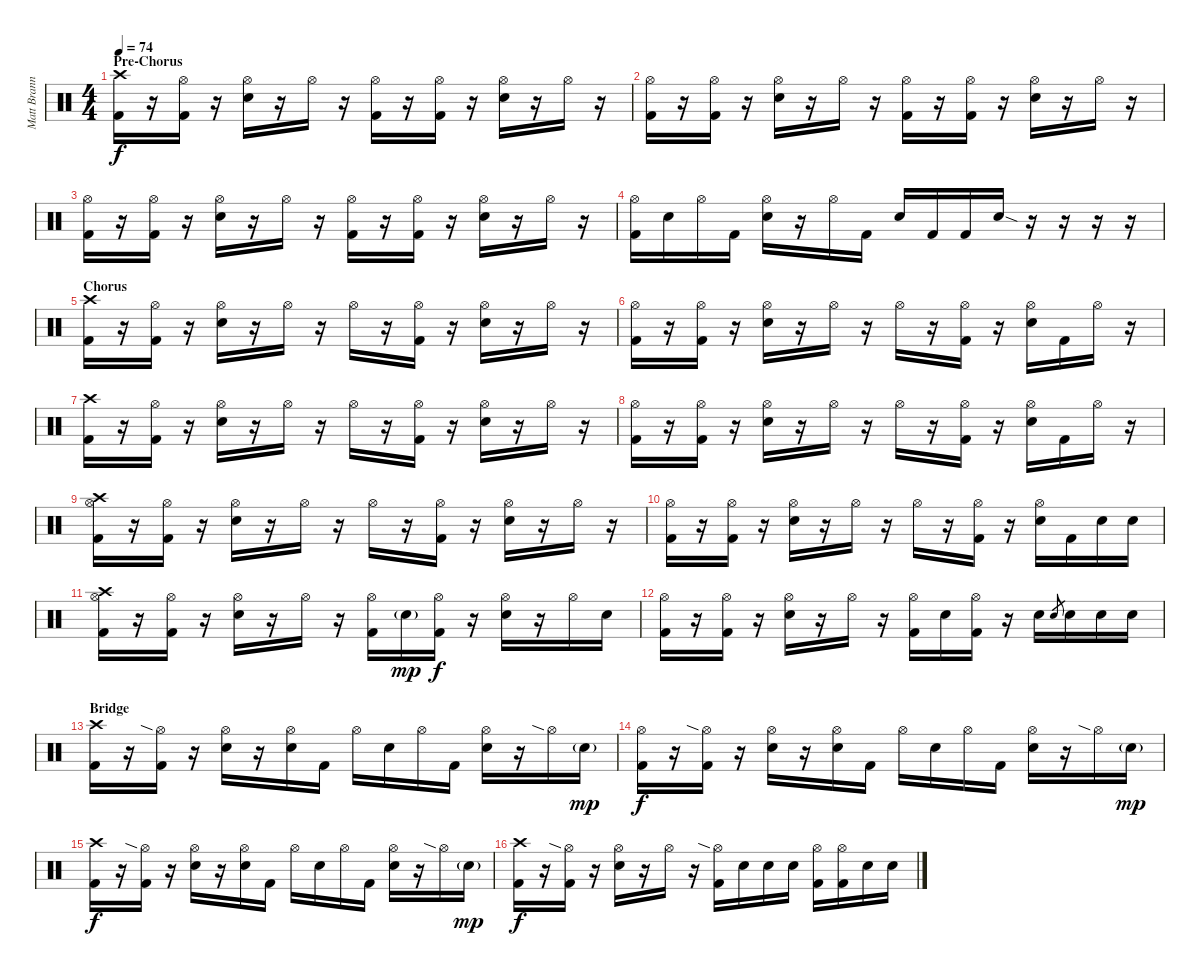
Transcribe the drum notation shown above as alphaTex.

\track ("Matt Brann" "Matt Brann") {instrument percussion}
\staff {score}
\articulation defaults
\ts (4 4)
\section ("" "Pre-Chorus")
\tempo 74
\clef neutral
\ks c
("Crash high (hit)" "Kick (hit) 2").16{dy f} r.16 ("Hi-Hat (open)" "Kick (hit) 2").16 r.16 ("Hi-Hat (open)" "Snare (hit) 2").16 r.16 "Hi-Hat (open)".16 r.16 ("Hi-Hat (open)" "Kick (hit) 2").16 r.16 ("Hi-Hat (open)" "Kick (hit) 2").16 r.16 ("Hi-Hat (open)" "Snare (hit) 2").16 r.16 "Hi-Hat (open)".16 r.16 |
("Hi-Hat (open)" "Kick (hit) 2").16 r.16 ("Hi-Hat (open)" "Kick (hit) 2").16 r.16 ("Hi-Hat (open)" "Snare (hit) 2").16 r.16 "Hi-Hat (open)".16 r.16 ("Hi-Hat (open)" "Kick (hit) 2").16 r.16 ("Hi-Hat (open)" "Kick (hit) 2").16 r.16 ("Hi-Hat (open)" "Snare (hit) 2").16 r.16 "Hi-Hat (open)".16 r.16 |
("Hi-Hat (open)" "Kick (hit) 2").16 r.16 ("Hi-Hat (open)" "Kick (hit) 2").16 r.16 ("Hi-Hat (open)" "Snare (hit) 2").16 r.16 "Hi-Hat (open)".16 r.16 ("Hi-Hat (open)" "Kick (hit) 2").16 r.16 ("Hi-Hat (open)" "Kick (hit) 2").16 r.16 ("Hi-Hat (open)" "Snare (hit) 2").16 r.16 "Hi-Hat (open)".16 r.16 |
("Hi-Hat (open)" "Kick (hit) 2").16 "Snare (hit) 2".16 "Hi-Hat (open)".16 "Kick (hit) 2".16 ("Hi-Hat (open)" "Snare (hit) 2").16 r.16 "Hi-Hat (open)".16 "Kick (hit) 2".16 "Snare (hit) 2".16 "Kick (hit) 2".16 "Kick (hit) 2".16 "Snare (hit) 2"{sod}.16 r.16 r.16 r.16 r.16 |
\section ("" "Chorus")
("Crash high (hit)" "Kick (hit) 2").16 r.16 ("Hi-Hat (open)" "Kick (hit) 2").16 r.16 ("Hi-Hat (open)" "Snare (hit) 2").16 r.16 "Hi-Hat (open)".16 r.16 "Hi-Hat (open)".16 r.16 ("Hi-Hat (open)" "Kick (hit) 2").16 r.16 ("Hi-Hat (open)" "Snare (hit) 2").16 r.16 "Hi-Hat (open)".16 r.16 |
("Hi-Hat (open)" "Kick (hit) 2").16 r.16 ("Hi-Hat (open)" "Kick (hit) 2").16 r.16 ("Hi-Hat (open)" "Snare (hit) 2").16 r.16 "Hi-Hat (open)".16 r.16 "Hi-Hat (open)".16 r.16 ("Hi-Hat (open)" "Kick (hit) 2").16 r.16 ("Hi-Hat (open)" "Snare (hit) 2").16 "Kick (hit) 2".16 "Hi-Hat (open)".16 r.16 |
("Crash high (hit)" "Kick (hit) 2").16 r.16 ("Hi-Hat (open)" "Kick (hit) 2").16 r.16 ("Hi-Hat (open)" "Snare (hit) 2").16 r.16 "Hi-Hat (open)".16 r.16 "Hi-Hat (open)".16 r.16 ("Hi-Hat (open)" "Kick (hit) 2").16 r.16 ("Hi-Hat (open)" "Snare (hit) 2").16 r.16 "Hi-Hat (open)".16 r.16 |
("Hi-Hat (open)" "Kick (hit) 2").16 r.16 ("Hi-Hat (open)" "Kick (hit) 2").16 r.16 ("Hi-Hat (open)" "Snare (hit) 2").16 r.16 "Hi-Hat (open)".16 r.16 "Hi-Hat (open)".16 r.16 ("Hi-Hat (open)" "Kick (hit) 2").16 r.16 ("Hi-Hat (open)" "Snare (hit) 2").16 "Kick (hit) 2".16 "Hi-Hat (open)".16 r.16 |
("Crash high (hit)" "Hi-Hat (open)" "Kick (hit) 2").16 r.16 ("Hi-Hat (open)" "Kick (hit) 2").16 r.16 ("Hi-Hat (open)" "Snare (hit) 2").16 r.16 "Hi-Hat (open)".16 r.16 "Hi-Hat (open)".16 r.16 ("Hi-Hat (open)" "Kick (hit) 2").16 r.16 ("Hi-Hat (open)" "Snare (hit) 2").16 r.16 "Hi-Hat (open)".16 r.16 |
("Hi-Hat (open)" "Kick (hit) 2").16 r.16 ("Hi-Hat (open)" "Kick (hit) 2").16 r.16 ("Hi-Hat (open)" "Snare (hit) 2").16 r.16 "Hi-Hat (open)".16 r.16 "Hi-Hat (open)".16 r.16 ("Hi-Hat (open)" "Kick (hit) 2").16 r.16 ("Hi-Hat (open)" "Snare (hit) 2").16 "Kick (hit) 2".16 "Snare (hit) 2".16 "Snare (hit) 2".16 |
("Crash high (hit)" "Hi-Hat (open)" "Kick (hit) 2").16 r.16 ("Hi-Hat (open)" "Kick (hit) 2").16 r.16 ("Hi-Hat (open)" "Snare (hit) 2").16 r.16 "Hi-Hat (open)".16 r.16 ("Hi-Hat (open)" "Kick (hit) 2").16 "Snare (hit) 2"{g}.16{dy mp} ("Hi-Hat (open)" "Kick (hit) 2").16{dy f} r.16 ("Hi-Hat (open)" "Snare (hit) 2").16 r.16 "Hi-Hat (open)".16 "Snare (hit) 2".16 |
("Hi-Hat (open)" "Kick (hit) 2").16 r.16 ("Hi-Hat (open)" "Kick (hit) 2").16 r.16 ("Hi-Hat (open)" "Snare (hit) 2").16 r.16 "Hi-Hat (open)".16 r.16 ("Hi-Hat (open)" "Kick (hit) 2").16 "Snare (hit) 2".16 ("Hi-Hat (open)" "Kick (hit) 2").16 r.16 "Snare (hit) 2".16 "Snare (hit) 2".8{gr} "Snare (hit) 2".16 "Snare (hit) 2".16 "Snare (hit) 2".16 |
\section ("" "Bridge")
("Crash high (hit)" "Kick (hit) 2").16 r.16 ("Hi-Hat (open)"{sia} "Kick (hit) 2").16 r.16 ("Hi-Hat (open)" "Snare (hit) 2").16 r.16 ("Hi-Hat (open)" "Snare (hit) 2").16 "Kick (hit) 2".16 "Hi-Hat (open)".16 "Snare (hit) 2".16 "Hi-Hat (open)".16 "Kick (hit) 2".16 ("Hi-Hat (open)" "Snare (hit) 2").16 r.16 "Hi-Hat (open)"{sia}.16 "Snare (hit) 2"{g}.16{dy mp} |
("Hi-Hat (open)" "Kick (hit) 2").16{dy f} r.16 ("Hi-Hat (open)"{sia} "Kick (hit) 2").16 r.16 ("Hi-Hat (open)" "Snare (hit) 2").16 r.16 ("Hi-Hat (open)" "Snare (hit) 2").16 "Kick (hit) 2".16 "Hi-Hat (open)".16 "Snare (hit) 2".16 "Hi-Hat (open)".16 "Kick (hit) 2".16 ("Hi-Hat (open)" "Snare (hit) 2").16 r.16 "Hi-Hat (open)"{sia}.16 "Snare (hit) 2"{g}.16{dy mp} |
("Crash high (hit)" "Kick (hit) 2").16{dy f} r.16 ("Hi-Hat (open)"{sia} "Kick (hit) 2").16 r.16 ("Hi-Hat (open)" "Snare (hit) 2").16 r.16 ("Hi-Hat (open)" "Snare (hit) 2").16 "Kick (hit) 2".16 "Hi-Hat (open)".16 "Snare (hit) 2".16 "Hi-Hat (open)".16 "Kick (hit) 2".16 ("Hi-Hat (open)" "Snare (hit) 2").16 r.16 "Hi-Hat (open)"{sia}.16 "Snare (hit) 2"{g}.16{dy mp} |
("Crash high (hit)" "Kick (hit) 2").16{dy f} r.16 ("Hi-Hat (open)"{sia} "Kick (hit) 2").16 r.16 ("Hi-Hat (open)" "Snare (hit) 2").16 r.16 "Hi-Hat (open)".16 r.16 ("Hi-Hat (open)"{sia} "Kick (hit) 2").16 "Snare (hit) 2".16 "Snare (hit) 2".16 "Snare (hit) 2".16 ("Hi-Hat (open)" "Kick (hit) 2").16 ("Hi-Hat (open)" "Kick (hit) 2").16 "Snare (hit) 2".16 "Snare (hit) 2".16
